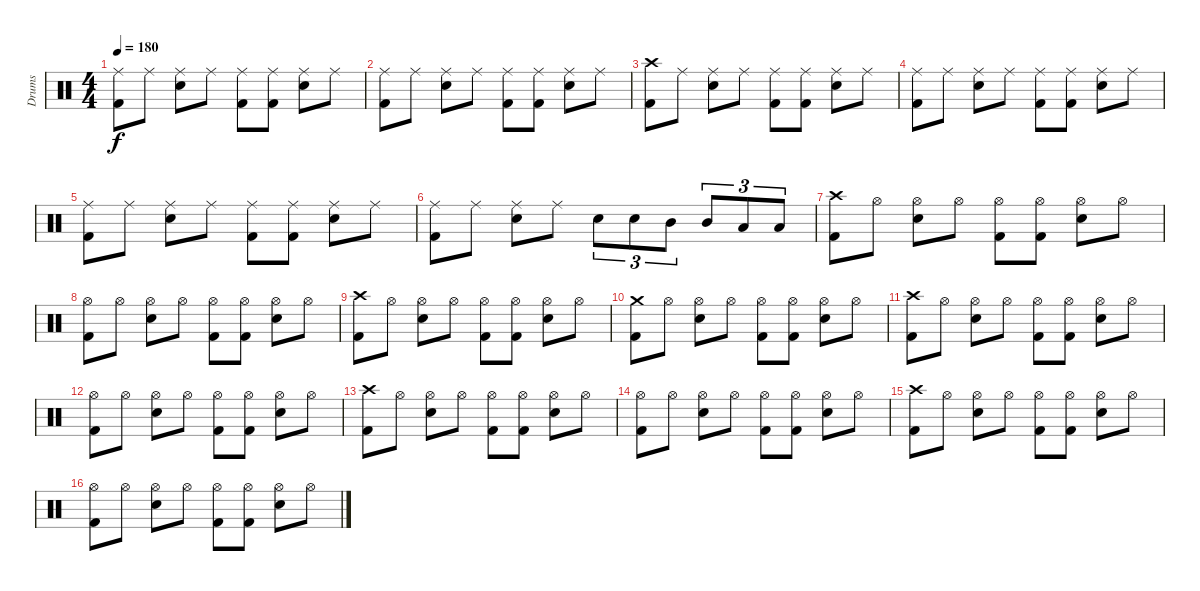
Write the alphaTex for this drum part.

\track ("Drums" "Drums") {instrument percussion}
\staff {score}
\articulation defaults
\ts (4 4)
\tempo 180
\clef neutral
\ks c
("Ride (middle)" "Kick (hit) 2").8{dy f} "Ride (middle)".8 ("Ride (middle)" "Snare (hit) 2").8 "Ride (middle)".8 ("Ride (middle)" "Kick (hit) 2").8 ("Ride (middle)" "Kick (hit) 2").8 ("Ride (middle)" "Snare (hit) 2").8 "Ride (middle)".8 |
("Ride (middle)" "Kick (hit) 2").8 "Ride (middle)".8 ("Ride (middle)" "Snare (hit) 2").8 "Ride (middle)".8 ("Ride (middle)" "Kick (hit) 2").8 ("Ride (middle)" "Kick (hit) 2").8 ("Ride (middle)" "Snare (hit) 2").8 "Ride (middle)".8 |
("Crash high (hit)" "Kick (hit) 2").8 "Ride (middle)".8 ("Ride (middle)" "Snare (hit) 2").8 "Ride (middle)".8 ("Ride (middle)" "Kick (hit) 2").8 ("Ride (middle)" "Kick (hit) 2").8 ("Ride (middle)" "Snare (hit) 2").8 "Ride (middle)".8 |
("Ride (middle)" "Kick (hit) 2").8 "Ride (middle)".8 ("Ride (middle)" "Snare (hit) 2").8 "Ride (middle)".8 ("Ride (middle)" "Kick (hit) 2").8 ("Ride (middle)" "Kick (hit) 2").8 ("Ride (middle)" "Snare (hit) 2").8 "Ride (middle)".8 |
("Ride (middle)" "Kick (hit) 2").8 "Ride (middle)".8 ("Ride (middle)" "Snare (hit) 2").8 "Ride (middle)".8 ("Ride (middle)" "Kick (hit) 2").8 ("Ride (middle)" "Kick (hit) 2").8 ("Ride (middle)" "Snare (hit) 2").8 "Ride (middle)".8 |
("Ride (middle)" "Kick (hit) 2").8 "Ride (middle)".8 ("Ride (middle)" "Snare (hit) 2").8 "Ride (middle)".8 "Snare (hit) 2".8{tu (3 2)} "Snare (hit) 2".8{tu (3 2)} "Mid Tom (hit)".8{tu (3 2)} "Mid Tom (hit)".8{tu (3 2)} "Low Tom (hit)".8{tu (3 2)} "Low Tom (hit)".8{tu (3 2)} |
("Crash high (hit)" "Kick (hit) 2").8 "Hi-Hat (open)".8 ("Hi-Hat (open)" "Snare (hit) 2").8 "Hi-Hat (open)".8 ("Hi-Hat (open)" "Kick (hit) 2").8 ("Hi-Hat (open)" "Kick (hit) 2").8 ("Hi-Hat (open)" "Snare (hit) 2").8 "Hi-Hat (open)".8 |
("Hi-Hat (open)" "Kick (hit) 2").8 "Hi-Hat (open)".8 ("Hi-Hat (open)" "Snare (hit) 2").8 "Hi-Hat (open)".8 ("Hi-Hat (open)" "Kick (hit) 2").8 ("Hi-Hat (open)" "Kick (hit) 2").8 ("Hi-Hat (open)" "Snare (hit) 2").8 "Hi-Hat (open)".8 |
("Crash high (hit)" "Kick (hit) 2").8 "Hi-Hat (open)".8 ("Hi-Hat (open)" "Snare (hit) 2").8 "Hi-Hat (open)".8 ("Hi-Hat (open)" "Kick (hit) 2").8 ("Hi-Hat (open)" "Kick (hit) 2").8 ("Hi-Hat (open)" "Snare (hit) 2").8 "Hi-Hat (open)".8 |
("Crash medium (hit)" "Kick (hit) 2").8 "Hi-Hat (open)".8 ("Hi-Hat (open)" "Snare (hit) 2").8 "Hi-Hat (open)".8 ("Hi-Hat (open)" "Kick (hit) 2").8 ("Hi-Hat (open)" "Kick (hit) 2").8 ("Hi-Hat (open)" "Snare (hit) 2").8 "Hi-Hat (open)".8 |
("Crash high (hit)" "Kick (hit) 2").8 "Hi-Hat (open)".8 ("Hi-Hat (open)" "Snare (hit) 2").8 "Hi-Hat (open)".8 ("Hi-Hat (open)" "Kick (hit) 2").8 ("Hi-Hat (open)" "Kick (hit) 2").8 ("Hi-Hat (open)" "Snare (hit) 2").8 "Hi-Hat (open)".8 |
("Hi-Hat (open)" "Kick (hit) 2").8 "Hi-Hat (open)".8 ("Hi-Hat (open)" "Snare (hit) 2").8 "Hi-Hat (open)".8 ("Hi-Hat (open)" "Kick (hit) 2").8 ("Hi-Hat (open)" "Kick (hit) 2").8 ("Hi-Hat (open)" "Snare (hit) 2").8 "Hi-Hat (open)".8 |
("Crash high (hit)" "Kick (hit) 2").8 "Hi-Hat (open)".8 ("Hi-Hat (open)" "Snare (hit) 2").8 "Hi-Hat (open)".8 ("Hi-Hat (open)" "Kick (hit) 2").8 ("Hi-Hat (open)" "Kick (hit) 2").8 ("Hi-Hat (open)" "Snare (hit) 2").8 "Hi-Hat (open)".8 |
("Hi-Hat (open)" "Kick (hit) 2").8 "Hi-Hat (open)".8 ("Hi-Hat (open)" "Snare (hit) 2").8 "Hi-Hat (open)".8 ("Hi-Hat (open)" "Kick (hit) 2").8 ("Hi-Hat (open)" "Kick (hit) 2").8 ("Hi-Hat (open)" "Snare (hit) 2").8 "Hi-Hat (open)".8 |
("Crash high (hit)" "Kick (hit) 2").8 "Hi-Hat (open)".8 ("Hi-Hat (open)" "Snare (hit) 2").8 "Hi-Hat (open)".8 ("Hi-Hat (open)" "Kick (hit) 2").8 ("Hi-Hat (open)" "Kick (hit) 2").8 ("Hi-Hat (open)" "Snare (hit) 2").8 "Hi-Hat (open)".8 |
("Hi-Hat (open)" "Kick (hit) 2").8 "Hi-Hat (open)".8 ("Hi-Hat (open)" "Snare (hit) 2").8 "Hi-Hat (open)".8 ("Hi-Hat (open)" "Kick (hit) 2").8 ("Hi-Hat (open)" "Kick (hit) 2").8 ("Hi-Hat (open)" "Snare (hit) 2").8 "Hi-Hat (open)".8
